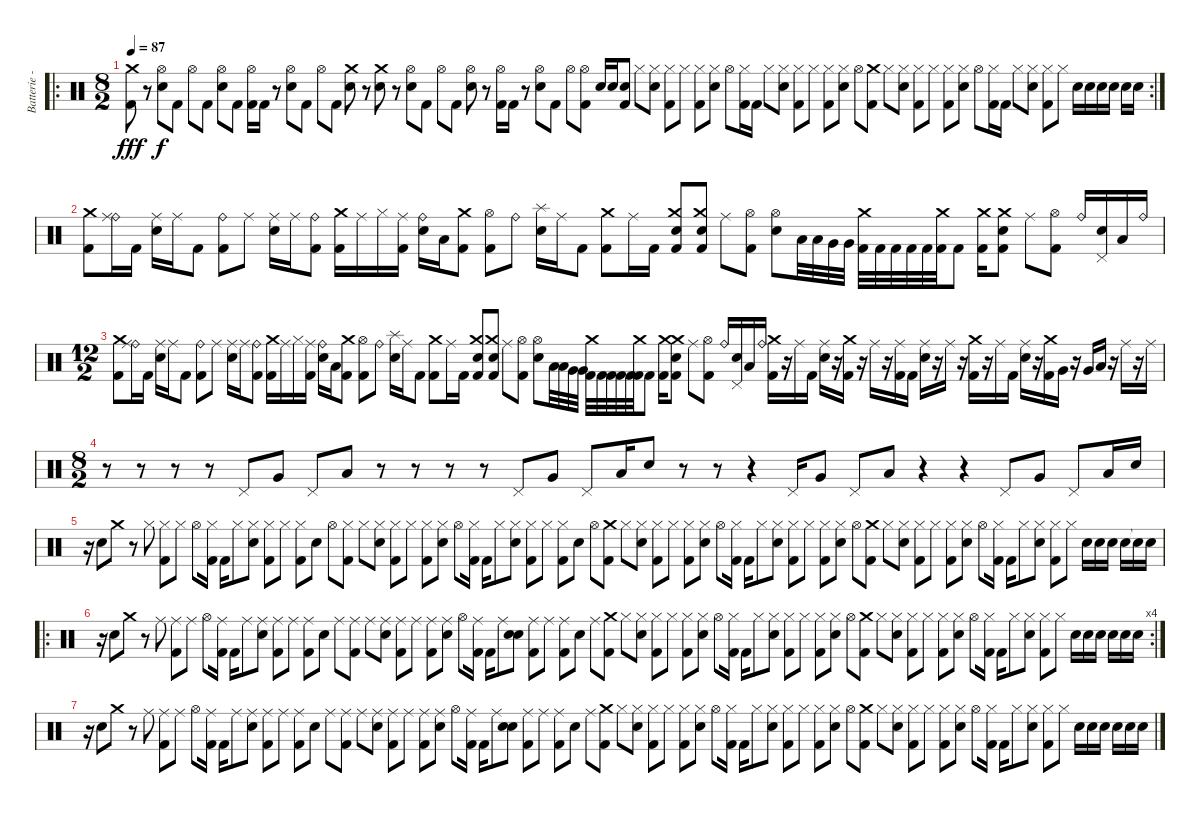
\track ("Batterie - " "Batterie -") {instrument percussion}
\staff {score}
\articulation defaults
\ro
\rc 2
\ts (8 2)
\tempo 87
\clef neutral
\ks c
("Kick (hit) 2" "Crash medium (hit)").8{dy fff} r.8 ("Electric Snare (hit)" "Hi-Hat (open)").8{dy f} "Kick (hit) 2".8 "Hi-Hat (open)".8 "Kick (hit) 2".8 ("Electric Snare (hit)" "Hi-Hat (open)").8 "Kick (hit) 2".8 ("Kick (hit) 2" "Hi-Hat (open)").16 "Kick (hit) 2".16 r.8 ("Electric Snare (hit)" "Hi-Hat (open)").8 "Kick (hit) 2".8 "Hi-Hat (open)".8 "Kick (hit) 2".8 ("Crash medium (hit)" "Electric Snare (hit)").8 r.8 ("Crash medium (hit)" "Electric Snare (hit)").8 r.8 ("Electric Snare (hit)" "Hi-Hat (open)").8 "Kick (hit) 2".8 "Hi-Hat (open)".8 "Kick (hit) 2".8 ("Electric Snare (hit)" "Hi-Hat (open)").8 r.8 ("Kick (hit) 2" "Hi-Hat (open)").16 "Kick (hit) 2".16 r.8 ("Electric Snare (hit)" "Hi-Hat (open)").8 "Kick (hit) 2".8 "Hi-Hat (open)".8 ("Kick (hit) 2" "Hi-Hat (open)").8 "Electric Snare (hit)".16 "Electric Snare (hit)".16 ("Kick (hit) 2" "Electric Snare (hit)").8 "Hi-Hat (closed)".8 ("Electric Snare (hit)" "Hi-Hat (closed)").8 ("Kick (hit) 2" "Hi-Hat (closed)").8 "Hi-Hat (closed)".8 ("Kick (hit) 2" "Hi-Hat (closed)").8 ("Electric Snare (hit)" "Hi-Hat (closed)").8 "Hi-Hat (open)".8 ("Kick (hit) 2" "Hi-Hat (closed)").16 "Kick (hit) 2".16 "Hi-Hat (closed)".8 ("Electric Snare (hit)" "Hi-Hat (closed)").8 ("Kick (hit) 2" "Hi-Hat (closed)").8 "Hi-Hat (closed)".8 ("Kick (hit) 2" "Hi-Hat (closed)").8 ("Electric Snare (hit)" "Hi-Hat (closed)").8 "Hi-Hat (open)".8 ("Crash medium (hit)" "Kick (hit) 2").8 "Hi-Hat (closed)".8 ("Electric Snare (hit)" "Hi-Hat (closed)").8 ("Kick (hit) 2" "Hi-Hat (closed)").8 "Hi-Hat (closed)".8 ("Kick (hit) 2" "Hi-Hat (closed)").8 ("Electric Snare (hit)" "Hi-Hat (closed)").8 "Hi-Hat (open)".8 ("Kick (hit) 2" "Hi-Hat (closed)").16 "Kick (hit) 2".16 "Hi-Hat (closed)".8 ("Electric Snare (hit)" "Hi-Hat (closed)").8 ("Kick (hit) 2" "Hi-Hat (closed)").8 "Hi-Hat (closed)".8 "Electric Snare (hit)".16 "Electric Snare (hit)".16 "Electric Snare (hit)".16 "Electric Snare (hit)".16 "Electric Snare (hit)".16 "Electric Snare (hit)".16 |
("Kick (hit) 2" "Crash medium (hit)").8 ("Ride (bell)" "Ride (middle)").16 "Kick (hit) 2".16 ("Ride (middle)" "Electric Snare (hit)").16 "Ride (middle)".16 "Kick (hit) 2".8 ("Kick (hit) 2" "Ride (bell)").8 "Ride (middle)".8 ("Ride (middle)" "Electric Snare (hit)").16 "Ride (middle)".16 ("Ride (bell)" "Kick (hit) 2").8 ("Crash medium (hit)" "Kick (hit) 2").16 "Ride (middle)".16 "Hi-Hat (closed)".16 ("Ride (middle)" "Kick (hit) 2").16 ("Ride (bell)" "Electric Snare (hit)").16 "Low Tom (hit)".16 ("Crash medium (hit)" "Kick (hit) 2").8 ("Kick (hit) 2" "Hi-Hat (open)").8 "Ride (bell)".8 ("Splash (hit)" "Electric Snare (hit)").16 "Ride (middle)".16 "Kick (hit) 2".8 ("Kick (hit) 2" "Crash medium (hit)").8 "Ride (middle)".16 "Kick (hit) 2".16 ("Kick (hit) 2" "Crash medium (hit)" "Electric Snare (hit)").8 ("Kick (hit) 2" "Crash medium (hit)" "Electric Snare (hit)").8 "Ride (middle)".8 ("Hi-Hat (open)" "Kick (hit) 2").8 ("Electric Snare (hit)" "Hi-Hat (open)").8 "Low Tom (hit)".32 "Low Tom (hit)".32 "Very Low Tom (hit)".32 "Very Low Tom (hit)".32 ("Crash medium (hit)" "Kick (hit) 2").32 "Kick (hit) 2".32 "Kick (hit) 2".32 "Kick (hit) 2".32 "Kick (hit) 2".32 ("Crash medium (hit)" "Kick (hit) 2").32 "Kick (hit) 2".8 ("Kick (hit) 2" "Crash medium (hit)").16 ("Electric Snare (hit)" "Kick (hit) 2" "Crash medium (hit)").8 "Ride (middle)".8 ("Kick (hit) 2" "Hi-Hat (open)").8 "Ride (bell)".16 ("Electric Snare (hit)" "Pedal Hi-Hat (hit)").16 "Low Tom (hit)".16 "Ride (bell)".16 |
\ts (12 2)
("Kick (hit) 2" "Crash medium (hit)").8 ("Ride (bell)" "Ride (middle)").16 "Kick (hit) 2".16 ("Ride (middle)" "Electric Snare (hit)").16 "Ride (middle)".16 "Kick (hit) 2".8 ("Kick (hit) 2" "Ride (bell)").8 "Ride (middle)".8 ("Ride (middle)" "Electric Snare (hit)").16 "Ride (middle)".16 ("Ride (bell)" "Kick (hit) 2").8 ("Crash medium (hit)" "Kick (hit) 2").16 "Ride (middle)".16 "Hi-Hat (closed)".16 ("Ride (middle)" "Kick (hit) 2").16 ("Ride (bell)" "Electric Snare (hit)").16 "Low Tom (hit)".16 ("Crash medium (hit)" "Kick (hit) 2").8 ("Kick (hit) 2" "Hi-Hat (open)").8 "Ride (bell)".8 ("Splash (hit)" "Electric Snare (hit)").16 "Ride (middle)".16 "Kick (hit) 2".8 ("Kick (hit) 2" "Crash medium (hit)").8 "Ride (middle)".16 "Kick (hit) 2".16 ("Kick (hit) 2" "Crash medium (hit)" "Electric Snare (hit)").8 ("Kick (hit) 2" "Crash medium (hit)" "Electric Snare (hit)").8 "Ride (middle)".8 ("Hi-Hat (open)" "Kick (hit) 2").8 ("Electric Snare (hit)" "Hi-Hat (open)").8 "Low Tom (hit)".32 "Low Tom (hit)".32 "Very Low Tom (hit)".32 "Very Low Tom (hit)".32 ("Crash medium (hit)" "Kick (hit) 2").32 "Kick (hit) 2".32 "Kick (hit) 2".32 "Kick (hit) 2".32 "Kick (hit) 2".32 ("Crash medium (hit)" "Kick (hit) 2").32 "Kick (hit) 2".8 ("Kick (hit) 2" "Crash medium (hit)").16 ("Electric Snare (hit)" "Kick (hit) 2" "Crash medium (hit)").8 "Ride (middle)".8 ("Kick (hit) 2" "Hi-Hat (open)").8 "Ride (bell)".16 ("Electric Snare (hit)" "Pedal Hi-Hat (hit)").16 "Low Tom (hit)".16 "Ride (bell)".16 ("Kick (hit) 2" "Crash medium (hit)").16 r.16 "Ride (middle)".16 "Kick (hit) 2".16 ("Electric Snare (hit)" "Ride (middle)").16 r.16 ("Kick (hit) 2" "Crash medium (hit)").16 r.16 "Ride (middle)".16 r.16 ("Kick (hit) 2" "Ride (middle)").16 "Kick (hit) 2".16 ("Electric Snare (hit)" "Ride (middle)").16 r.16 "Ride (middle)".16 r.16 ("Kick (hit) 2" "Crash medium (hit)").16 r.16 "Ride (middle)".16 "Kick (hit) 2".16 ("Electric Snare (hit)" "Ride (middle)").16 r.16 ("Kick (hit) 2" "Crash medium (hit)").16 "Very Low Tom (hit)".16 r.16 "Very Low Tom (hit)".16 "Low Tom (hit)".16 r.16 "Ride (middle)".16 r.16 "Ride (middle)".16 |
\ts (8 2)
r.8 r.8 r.8 r.8 "Pedal Hi-Hat (hit)".8 "Very Low Tom (hit)".8 "Pedal Hi-Hat (hit)".8 "Low Floor Tom (hit)".8 r.8 r.8 r.8 r.8 "Pedal Hi-Hat (hit)".8 "Very Low Tom (hit)".8 "Pedal Hi-Hat (hit)".8 "Low Floor Tom (hit)".16 "Electric Snare (hit)".8 r.8 r.8 r.4 "Pedal Hi-Hat (hit)".16 "Very Low Tom (hit)".8 "Pedal Hi-Hat (hit)".8 "Low Floor Tom (hit)".8 r.4 r.4 "Pedal Hi-Hat (hit)".8 "Very Low Tom (hit)".8 "Pedal Hi-Hat (hit)".8 "Low Floor Tom (hit)".16 "Electric Snare (hit)".16 |
r.16 "Electric Snare (hit)".8 "Crash medium (hit)".8 r.8 "Hi-Hat (closed)".8 ("Kick (hit) 2" "Hi-Hat (closed)").8 "Hi-Hat (closed)".8 "Hi-Hat (open)".8 ("Kick (hit) 2" "Hi-Hat (closed)").16 "Kick (hit) 2".16 "Hi-Hat (closed)".8 ("Electric Snare (hit)" "Hi-Hat (closed)").8 ("Kick (hit) 2" "Hi-Hat (closed)").8 "Hi-Hat (closed)".8 ("Kick (hit) 2" "Hi-Hat (closed)").8 "Electric Snare (hit)".8 "Hi-Hat (open)".8 ("Kick (hit) 2" "Hi-Hat (closed)").8 "Hi-Hat (closed)".8 ("Electric Snare (hit)" "Hi-Hat (closed)").8 ("Kick (hit) 2" "Hi-Hat (closed)").8 "Hi-Hat (closed)".8 ("Kick (hit) 2" "Hi-Hat (closed)").8 ("Electric Snare (hit)" "Hi-Hat (closed)").8 "Hi-Hat (open)".8 ("Kick (hit) 2" "Hi-Hat (closed)").16 "Kick (hit) 2".16 "Hi-Hat (closed)".8 ("Electric Snare (hit)" "Hi-Hat (closed)").8 ("Kick (hit) 2" "Hi-Hat (closed)").8 "Hi-Hat (closed)".8 ("Kick (hit) 2" "Hi-Hat (closed)").8 "Electric Snare (hit)".8 "Hi-Hat (open)".8 ("Kick (hit) 2" "Crash medium (hit)").8 "Hi-Hat (closed)".8 ("Electric Snare (hit)" "Hi-Hat (closed)").8 ("Kick (hit) 2" "Hi-Hat (closed)").8 "Hi-Hat (closed)".8 ("Kick (hit) 2" "Hi-Hat (closed)").8 ("Electric Snare (hit)" "Hi-Hat (closed)").8 "Hi-Hat (open)".8 ("Kick (hit) 2" "Hi-Hat (closed)").16 "Kick (hit) 2".16 "Hi-Hat (closed)".8 ("Electric Snare (hit)" "Hi-Hat (closed)").8 ("Kick (hit) 2" "Hi-Hat (closed)").8 "Hi-Hat (closed)".8 ("Kick (hit) 2" "Hi-Hat (closed)").8 ("Electric Snare (hit)" "Hi-Hat (closed)").8 "Hi-Hat (open)".8 ("Crash medium (hit)" "Kick (hit) 2").8 "Hi-Hat (closed)".8 ("Electric Snare (hit)" "Hi-Hat (closed)").8 ("Kick (hit) 2" "Hi-Hat (closed)").8 "Hi-Hat (closed)".8 ("Kick (hit) 2" "Hi-Hat (closed)").8 ("Electric Snare (hit)" "Hi-Hat (closed)").8 "Hi-Hat (open)".8 ("Kick (hit) 2" "Hi-Hat (closed)").16 "Kick (hit) 2".16 "Hi-Hat (closed)".8 ("Electric Snare (hit)" "Hi-Hat (closed)").8 ("Kick (hit) 2" "Hi-Hat (closed)").8 "Hi-Hat (closed)".8 "Electric Snare (hit)".16 "Electric Snare (hit)".16 "Electric Snare (hit)".16 "Electric Snare (hit)".16 "Electric Snare (hit)"{t}.16 "Electric Snare (hit)".16 |
\ro
\rc 4
r.16 "Electric Snare (hit)".8 "Crash medium (hit)".8 r.8 "Ride (middle)".8 ("Kick (hit) 2" "Ride (middle)").8 "Ride (middle)".8 "Hi-Hat (open)".8 ("Kick (hit) 2" "Ride (middle)").16 "Kick (hit) 2".16 "Ride (middle)".8 ("Electric Snare (hit)" "Ride (middle)").8 ("Kick (hit) 2" "Ride (middle)").8 "Ride (middle)".8 ("Kick (hit) 2" "Ride (middle)").8 "Electric Snare (hit)".8 "Ride (middle)".8 ("Kick (hit) 2" "Ride (middle)").8 "Ride (middle)".8 ("Electric Snare (hit)" "Ride (middle)").8 ("Kick (hit) 2" "Ride (middle)").8 "Ride (middle)".8 ("Kick (hit) 2" "Ride (middle)").8 ("Electric Snare (hit)" "Ride (middle)").8 "Hi-Hat (open)".8 ("Kick (hit) 2" "Ride (middle)").16 "Kick (hit) 2".16 "Ride (middle)".8 ("Electric Snare (hit)" "Snare (hit)").8 ("Kick (hit) 2" "Ride (middle)").8 "Ride (middle)".8 ("Kick (hit) 2" "Ride (middle)").8 "Electric Snare (hit)".8 "Ride (middle)".8 ("Kick (hit) 2" "Crash medium (hit)").8 "Hi-Hat (closed)".8 ("Electric Snare (hit)" "Hi-Hat (closed)").8 ("Kick (hit) 2" "Hi-Hat (closed)").8 "Hi-Hat (closed)".8 ("Kick (hit) 2" "Hi-Hat (closed)").8 ("Electric Snare (hit)" "Hi-Hat (closed)").8 "Hi-Hat (open)".8 ("Kick (hit) 2" "Hi-Hat (closed)").16 "Kick (hit) 2".16 "Hi-Hat (closed)".8 ("Electric Snare (hit)" "Hi-Hat (closed)").8 ("Kick (hit) 2" "Hi-Hat (closed)").8 "Hi-Hat (closed)".8 ("Kick (hit) 2" "Hi-Hat (closed)").8 ("Electric Snare (hit)" "Hi-Hat (closed)").8 "Hi-Hat (open)".8 ("Crash medium (hit)" "Kick (hit) 2").8 "Hi-Hat (closed)".8 ("Electric Snare (hit)" "Hi-Hat (closed)").8 ("Kick (hit) 2" "Hi-Hat (closed)").8 "Hi-Hat (closed)".8 ("Kick (hit) 2" "Hi-Hat (closed)").8 ("Electric Snare (hit)" "Hi-Hat (closed)").8 "Hi-Hat (open)".8 ("Kick (hit) 2" "Hi-Hat (closed)").16 "Kick (hit) 2".16 "Hi-Hat (closed)".8 ("Electric Snare (hit)" "Hi-Hat (closed)").8 ("Kick (hit) 2" "Hi-Hat (closed)").8 "Hi-Hat (closed)".8 "Electric Snare (hit)".16 "Electric Snare (hit)".16 "Electric Snare (hit)".16 "Electric Snare (hit)".16 "Electric Snare (hit)".16 "Electric Snare (hit)".16 |
r.16 "Electric Snare (hit)".8 "Crash medium (hit)".8 r.8 "Ride (middle)".8 ("Kick (hit) 2" "Ride (middle)").8 "Ride (middle)".8 "Hi-Hat (open)".8 ("Kick (hit) 2" "Ride (middle)").16 "Kick (hit) 2".16 "Ride (middle)".8 ("Electric Snare (hit)" "Ride (middle)").8 ("Kick (hit) 2" "Ride (middle)").8 "Ride (middle)".8 ("Kick (hit) 2" "Ride (middle)").8 "Electric Snare (hit)".8 "Ride (middle)".8 ("Kick (hit) 2" "Ride (middle)").8 "Ride (middle)".8 ("Electric Snare (hit)" "Ride (middle)").8 ("Kick (hit) 2" "Ride (middle)").8 "Ride (middle)".8 ("Kick (hit) 2" "Ride (middle)").8 ("Electric Snare (hit)" "Ride (middle)").8 "Hi-Hat (open)".8 ("Kick (hit) 2" "Ride (middle)").16 "Kick (hit) 2".16 "Ride (middle)".8 ("Electric Snare (hit)" "Snare (hit)").8 ("Kick (hit) 2" "Ride (middle)").8 "Ride (middle)".8 ("Kick (hit) 2" "Ride (middle)").8 "Electric Snare (hit)".8 "Ride (middle)".8 ("Kick (hit) 2" "Crash medium (hit)").8 "Hi-Hat (closed)".8 ("Electric Snare (hit)" "Hi-Hat (closed)").8 ("Kick (hit) 2" "Hi-Hat (closed)").8 "Hi-Hat (closed)".8 ("Kick (hit) 2" "Hi-Hat (closed)").8 ("Electric Snare (hit)" "Hi-Hat (closed)").8 "Hi-Hat (open)".8 ("Kick (hit) 2" "Hi-Hat (closed)").16 "Kick (hit) 2".16 "Hi-Hat (closed)".8 ("Electric Snare (hit)" "Hi-Hat (closed)").8 ("Kick (hit) 2" "Hi-Hat (closed)").8 "Hi-Hat (closed)".8 ("Kick (hit) 2" "Hi-Hat (closed)").8 ("Electric Snare (hit)" "Hi-Hat (closed)").8 "Hi-Hat (open)".8 ("Crash medium (hit)" "Kick (hit) 2").8 "Hi-Hat (closed)".8 ("Electric Snare (hit)" "Hi-Hat (closed)").8 ("Kick (hit) 2" "Hi-Hat (closed)").8 "Hi-Hat (closed)".8 ("Kick (hit) 2" "Hi-Hat (closed)").8 ("Electric Snare (hit)" "Hi-Hat (closed)").8 "Hi-Hat (open)".8 ("Kick (hit) 2" "Hi-Hat (closed)").16 "Kick (hit) 2".16 "Hi-Hat (closed)".8 ("Electric Snare (hit)" "Hi-Hat (closed)").8 ("Kick (hit) 2" "Hi-Hat (closed)").8 "Hi-Hat (closed)".8 "Electric Snare (hit)".16 "Electric Snare (hit)".16 "Electric Snare (hit)".16 "Electric Snare (hit)".16 "Electric Snare (hit)".16 "Electric Snare (hit)".16
